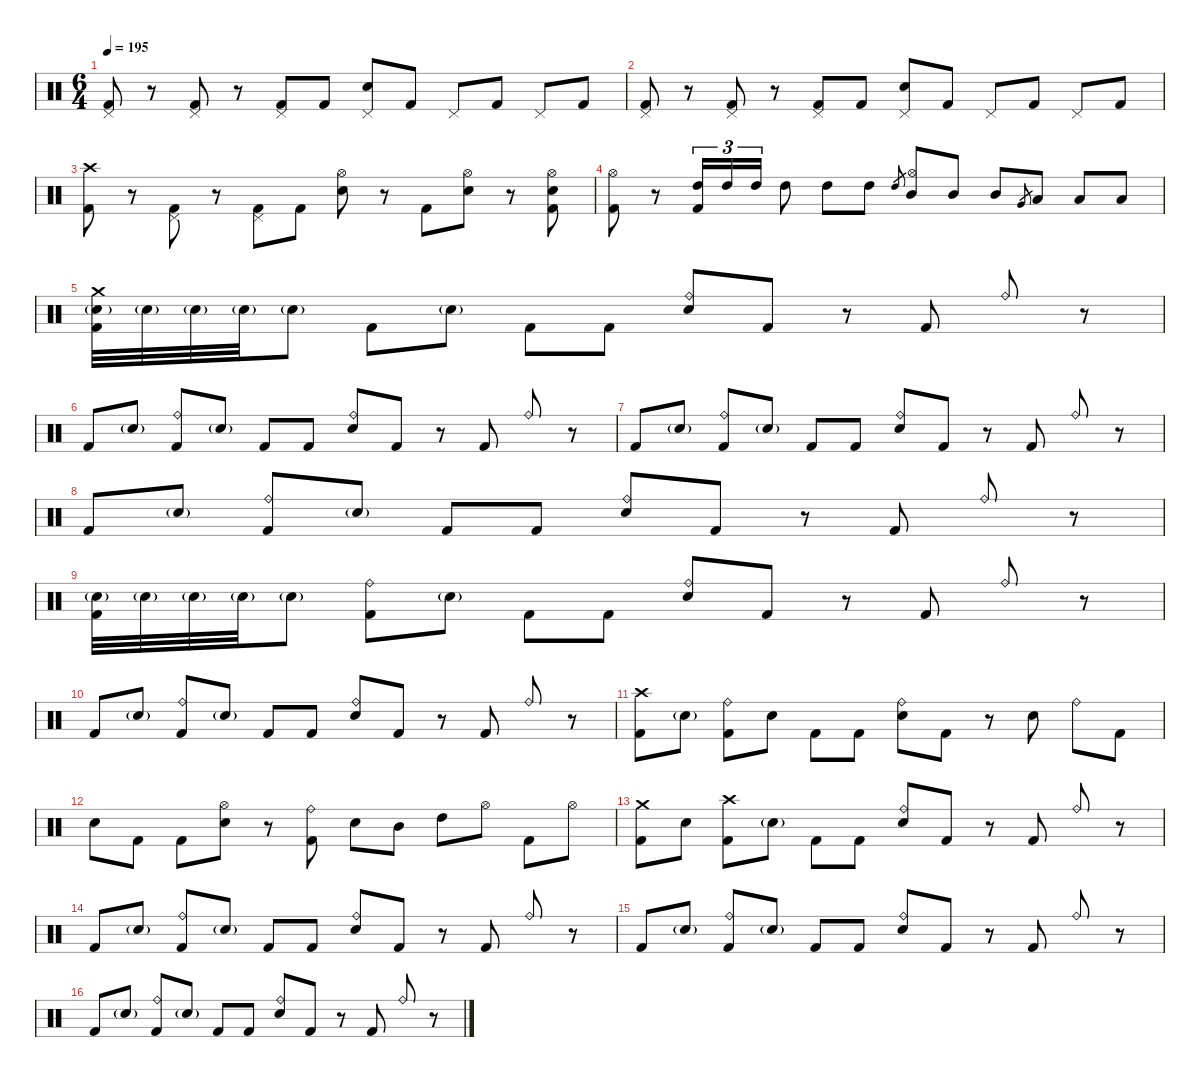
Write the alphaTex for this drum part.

\defaultSystemsLayout 4
\hideDynamics
\bracketExtendMode nobrackets
\singleTrackTrackNamePolicy hidden
\multiTrackTrackNamePolicy hidden
\firstSystemTrackNameMode fullname
\firstSystemTrackNameOrientation horizontal
\otherSystemsTrackNameOrientation horizontal
\track ("Drums" "drm.") {instrument percussion}
\staff {score}
\articulation defaults
\ts (6 4)
\tempo 195
\clef neutral
\ks c
("Pedal Hi-Hat (hit)" "Kick (hit) 2").8{dy f beam Up} r.8{beam Up} ("Pedal Hi-Hat (hit)" "Kick (hit) 2").8{beam Up} r.8{beam Up} ("Pedal Hi-Hat (hit)" "Kick (hit) 2").8{beam Up} "Kick (hit) 2".8{beam Up} ("Pedal Hi-Hat (hit)" "Snare (hit) 2").8{beam Up} "Kick (hit) 2".8{beam Up} "Pedal Hi-Hat (hit)".8{beam Up} "Kick (hit) 2".8{beam Up} "Pedal Hi-Hat (hit)".8{beam Up} "Kick (hit) 2".8{beam Up} |
("Pedal Hi-Hat (hit)" "Kick (hit) 2").8{beam Up} r.8{beam Up} ("Pedal Hi-Hat (hit)" "Kick (hit) 2").8{beam Up} r.8{beam Up} ("Pedal Hi-Hat (hit)" "Kick (hit) 2").8{beam Up} "Kick (hit) 2".8{beam Up} ("Pedal Hi-Hat (hit)" "Snare (hit) 2").8{beam Up} "Kick (hit) 2".8{beam Up} "Pedal Hi-Hat (hit)".8{beam Up} "Kick (hit) 2".8{beam Up} "Pedal Hi-Hat (hit)".8{beam Up} "Kick (hit) 2".8{beam Up} |
("Crash high (hit)" "Kick (hit) 2").8{beam Down} r.8{beam Down} ("Pedal Hi-Hat (hit)" "Kick (hit) 2").8{beam Down} r.8{beam Down} ("Pedal Hi-Hat (hit)" "Kick (hit) 2").8{beam Down} "Kick (hit) 2".8{beam Down} ("Hi-Hat (open)" "Snare (hit) 2").8{beam Down} r.8{beam Down} "Kick (hit) 2".8{beam Down} ("Hi-Hat (open)" "Snare (hit) 2").8{beam Down} r.8{beam Down} ("Hi-Hat (open)" "Snare (hit) 2" "Kick (hit) 2").8{beam Down} |
("Hi-Hat (open)" "Kick (hit) 2").8{beam Down} r.8{beam Down} ("High Tom (hit)" "Kick (hit) 2").16{tu (3 2) beam Up} "High Tom (hit)".16{tu (3 2) beam Up} "High Tom (hit)".16{tu (3 2) beam Up} "High Tom (hit)".8{beam Down} "High Tom (hit)".8{beam Down} "High Tom (hit)".8{beam Down} "High Tom (hit)".8{gr dy mf beam Up} ("Hi-Hat (open)" "Mid Tom (hit)").8{dy f beam Up} "Mid Tom (hit)".8{beam Up} "Mid Tom (hit)".8{beam Up} "Very Low Tom (hit)".8{gr dy mf beam Up} "Low Tom (hit)".8{dy f beam Up} "Low Tom (hit)".8{beam Up} "Low Tom (hit)".8{beam Up} |
("Crash medium (hit)" "Snare (hit) 2"{g} "Kick (hit) 2").32{beam Down} "Snare (hit) 2"{g}.32{dy mf beam Down} "Snare (hit) 2"{g}.32{beam Down} "Snare (hit) 2"{g}.32{beam Down} "Snare (hit) 2"{g}.8{beam Down} "Kick (hit) 2".8{dy f beam Down} "Snare (hit) 2"{g}.8{dy mf beam Down} "Kick (hit) 2".8{dy f beam Down} "Kick (hit) 2".8{beam Down} ("Ride (bell)" "Snare (hit) 2").8{beam Up} "Kick (hit) 2".8{beam Up} r.8{beam Up} "Kick (hit) 2".8{beam Up} "Ride (bell)".8{beam Up} r.8{beam Up} |
"Kick (hit) 2".8{beam Up} "Snare (hit) 2"{g}.8{dy mf beam Up} ("Ride (bell)" "Kick (hit) 2").8{dy f beam Up} "Snare (hit) 2"{g}.8{dy mf beam Up} "Kick (hit) 2".8{dy f beam Up} "Kick (hit) 2".8{beam Up} ("Ride (bell)" "Snare (hit) 2").8{beam Up} "Kick (hit) 2".8{beam Up} r.8{beam Up} "Kick (hit) 2".8{beam Up} "Ride (bell)".8{beam Up} r.8{beam Up} |
"Kick (hit) 2".8{beam Up} "Snare (hit) 2"{g}.8{dy mf beam Up} ("Ride (bell)" "Kick (hit) 2").8{dy f beam Up} "Snare (hit) 2"{g}.8{dy mf beam Up} "Kick (hit) 2".8{dy f beam Up} "Kick (hit) 2".8{beam Up} ("Ride (bell)" "Snare (hit) 2").8{beam Up} "Kick (hit) 2".8{beam Up} r.8{beam Up} "Kick (hit) 2".8{beam Up} "Ride (bell)".8{beam Up} r.8{beam Up} |
"Kick (hit) 2".8{beam Up} "Snare (hit) 2"{g}.8{dy mf beam Up} ("Ride (bell)" "Kick (hit) 2").8{dy f beam Up} "Snare (hit) 2"{g}.8{dy mf beam Up} "Kick (hit) 2".8{dy f beam Up} "Kick (hit) 2".8{beam Up} ("Ride (bell)" "Snare (hit) 2").8{beam Up} "Kick (hit) 2".8{beam Up} r.8{beam Up} "Kick (hit) 2".8{beam Up} "Ride (bell)".8{beam Up} r.8{beam Up} |
("Snare (hit) 2"{g} "Kick (hit) 2").32{beam Down} "Snare (hit) 2"{g}.32{dy mf beam Down} "Snare (hit) 2"{g}.32{beam Down} "Snare (hit) 2"{g}.32{beam Down} "Snare (hit) 2"{g}.8{beam Down} ("Ride (bell)" "Kick (hit) 2").8{dy f beam Down} "Snare (hit) 2"{g}.8{dy mf beam Down} "Kick (hit) 2".8{dy f beam Down} "Kick (hit) 2".8{beam Down} ("Ride (bell)" "Snare (hit) 2").8{beam Up} "Kick (hit) 2".8{beam Up} r.8{beam Up} "Kick (hit) 2".8{beam Up} "Ride (bell)".8{beam Up} r.8{beam Up} |
"Kick (hit) 2".8{beam Up} "Snare (hit) 2"{g}.8{dy mf beam Up} ("Ride (bell)" "Kick (hit) 2").8{dy f beam Up} "Snare (hit) 2"{g}.8{dy mf beam Up} "Kick (hit) 2".8{dy f beam Up} "Kick (hit) 2".8{beam Up} ("Ride (bell)" "Snare (hit) 2").8{beam Up} "Kick (hit) 2".8{beam Up} r.8{beam Up} "Kick (hit) 2".8{beam Up} "Ride (bell)".8{beam Up} r.8{beam Up} |
("Crash high (hit)" "Kick (hit) 2").8{beam Down} "Snare (hit) 2"{g}.8{dy mf beam Down} ("Ride (bell)" "Kick (hit) 2").8{dy f beam Down} "Snare (hit) 2".8{beam Down} "Kick (hit) 2".8{beam Down} "Kick (hit) 2".8{beam Down} ("Ride (bell)" "Snare (hit) 2").8{beam Down} "Kick (hit) 2".8{beam Down} r.8{beam Down} "Snare (hit) 2".8{beam Down} "Ride (bell)".8{beam Down} "Kick (hit) 2".8{beam Down} |
"Snare (hit) 2".8{beam Down} "Kick (hit) 2".8{beam Down} "Kick (hit) 2".8{beam Down} ("Hi-Hat (open)" "Snare (hit) 2").8{beam Down} r.8{beam Down} ("Ride (bell)" "Kick (hit) 2").8{beam Down} "Snare (hit) 2".8{beam Down} "Mid Tom (hit)".8{beam Down} "High Tom (hit)".8{beam Down} "Hi-Hat (open)".8{beam Down} "Kick (hit) 2".8{beam Down} "Hi-Hat (open)".8{beam Down} |
("Crash medium (hit)" "Kick (hit) 2").8{beam Down} "Snare (hit) 2".8{beam Down} ("Crash high (hit)" "Kick (hit) 2").8{beam Down} "Snare (hit) 2"{g}.8{dy mf beam Down} "Kick (hit) 2".8{dy f beam Down} "Kick (hit) 2".8{beam Down} ("Ride (bell)" "Snare (hit) 2").8{beam Up} "Kick (hit) 2".8{beam Up} r.8{beam Up} "Kick (hit) 2".8{beam Up} "Ride (bell)".8{beam Up} r.8{beam Up} |
"Kick (hit) 2".8{beam Up} "Snare (hit) 2"{g}.8{dy mf beam Up} ("Ride (bell)" "Kick (hit) 2").8{dy f beam Up} "Snare (hit) 2"{g}.8{dy mf beam Up} "Kick (hit) 2".8{dy f beam Up} "Kick (hit) 2".8{beam Up} ("Ride (bell)" "Snare (hit) 2").8{beam Up} "Kick (hit) 2".8{beam Up} r.8{beam Up} "Kick (hit) 2".8{beam Up} "Ride (bell)".8{beam Up} r.8{beam Up} |
"Kick (hit) 2".8{beam Up} "Snare (hit) 2"{g}.8{dy mf beam Up} ("Ride (bell)" "Kick (hit) 2").8{dy f beam Up} "Snare (hit) 2"{g}.8{dy mf beam Up} "Kick (hit) 2".8{dy f beam Up} "Kick (hit) 2".8{beam Up} ("Ride (bell)" "Snare (hit) 2").8{beam Up} "Kick (hit) 2".8{beam Up} r.8{beam Up} "Kick (hit) 2".8{beam Up} "Ride (bell)".8{beam Up} r.8{beam Up} |
"Kick (hit) 2".8{beam Up} "Snare (hit) 2"{g}.8{dy mf beam Up} ("Ride (bell)" "Kick (hit) 2").8{dy f beam Up} "Snare (hit) 2"{g}.8{dy mf beam Up} "Kick (hit) 2".8{dy f beam Up} "Kick (hit) 2".8{beam Up} ("Ride (bell)" "Snare (hit) 2").8{beam Up} "Kick (hit) 2".8{beam Up} r.8{beam Up} "Kick (hit) 2".8{beam Up} "Ride (bell)".8{beam Up} r.8{beam Up}
